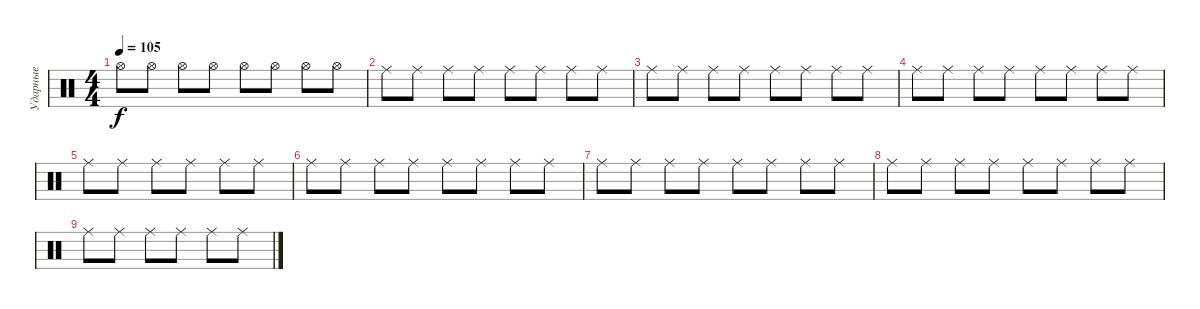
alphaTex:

\track ("Ударные" "Ударные") {instrument percussion}
\staff {score}
\articulation defaults
\ts (4 4)
\tempo 105
\clef neutral
\ks c "Hi-Hat (open)".8{dy f} "Hi-Hat (open)".8 "Hi-Hat (open)".8 "Hi-Hat (open)".8 "Hi-Hat (open)".8 "Hi-Hat (open)".8 "Hi-Hat (open)".8 "Hi-Hat (open)".8
|
"Ride (middle)".8 "Ride (middle)".8 "Ride (middle)".8 "Ride (middle)".8 "Ride (middle)".8 "Ride (middle)".8 "Ride (middle)".8 "Ride (middle)".8 |
"Ride (middle)".8 "Ride (middle)".8 "Ride (middle)".8 "Ride (middle)".8 "Ride (middle)".8 "Ride (middle)".8 "Ride (middle)".8 "Ride (middle)".8 |
"Ride (middle)".8 "Ride (middle)".8 "Ride (middle)".8 "Ride (middle)".8 "Ride (middle)".8 "Ride (middle)".8 "Ride (middle)".8 "Ride (middle)".8 |
"Ride (middle)".8 "Ride (middle)".8 "Ride (middle)".8 "Ride (middle)".8 "Ride (middle)".8 "Ride (middle)".8 |
"Ride (middle)".8 "Ride (middle)".8 "Ride (middle)".8 "Ride (middle)".8 "Ride (middle)".8 "Ride (middle)".8 "Ride (middle)".8 "Ride (middle)".8 |
"Ride (middle)".8 "Ride (middle)".8 "Ride (middle)".8 "Ride (middle)".8 "Ride (middle)".8 "Ride (middle)".8 "Ride (middle)".8 "Ride (middle)".8 |
"Ride (middle)".8 "Ride (middle)".8 "Ride (middle)".8 "Ride (middle)".8 "Ride (middle)".8 "Ride (middle)".8 "Ride (middle)".8 "Ride (middle)".8 |
"Ride (middle)".8 "Ride (middle)".8 "Ride (middle)".8 "Ride (middle)".8 "Ride (middle)".8 "Ride (middle)".8
